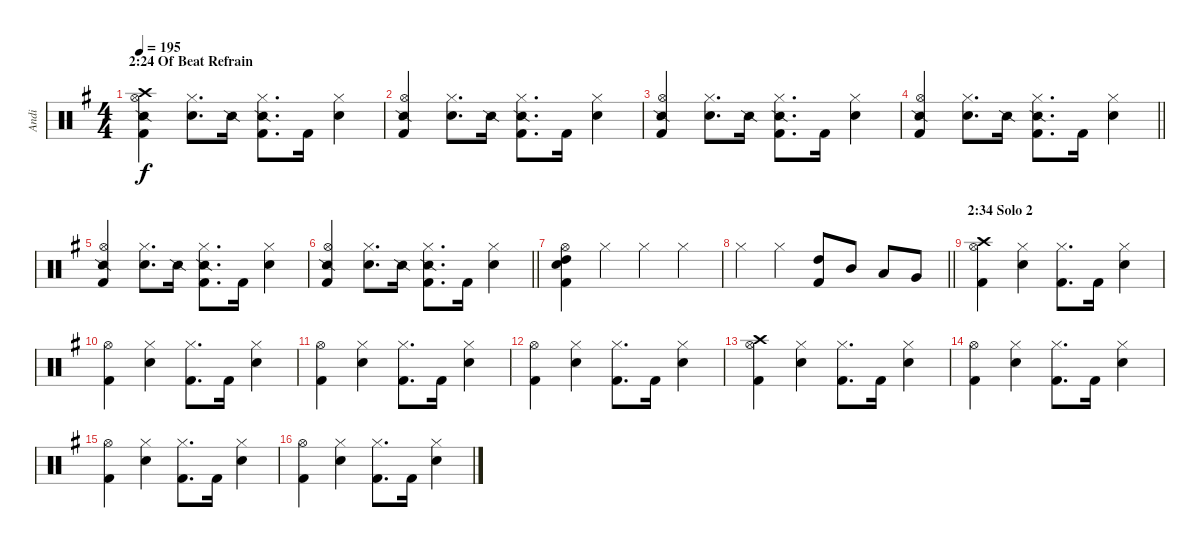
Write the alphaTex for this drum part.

\track ("Andi" "Andi") {instrument percussion}
\staff {score}
\articulation defaults
\ts (4 4)
\section ("" "2:24 Of Beat Refrain")
\tempo 195
\clef neutral
\ks g
("Crash high (hit)" "Snare (side stick) 2" "Hi-Hat (open)" "Kick (hit) 2").4{dy f} ("Hi-Hat (closed)" "Snare (hit) 2").8{d} "Snare (side stick) 2".16 ("Snare (side stick) 2" "Hi-Hat (closed)" "Kick (hit) 2").8{d} "Kick (hit) 2".16 ("Hi-Hat (closed)" "Snare (hit) 2").4 |
("Snare (side stick) 2" "Hi-Hat (open)" "Kick (hit) 2").4 ("Hi-Hat (closed)" "Snare (hit) 2").8{d} "Snare (side stick) 2".16 ("Snare (side stick) 2" "Hi-Hat (closed)" "Kick (hit) 2").8{d} "Kick (hit) 2".16 ("Hi-Hat (closed)" "Snare (hit) 2").4 |
("Snare (side stick) 2" "Hi-Hat (open)" "Kick (hit) 2").4 ("Hi-Hat (closed)" "Snare (hit) 2").8{d} "Snare (side stick) 2".16 ("Snare (side stick) 2" "Hi-Hat (closed)" "Kick (hit) 2").8{d} "Kick (hit) 2".16 ("Hi-Hat (closed)" "Snare (hit) 2").4 |
\barLineRight lightlight
("Snare (side stick) 2" "Hi-Hat (open)" "Kick (hit) 2").4 ("Hi-Hat (closed)" "Snare (hit) 2").8{d} "Snare (side stick) 2".16 ("Snare (side stick) 2" "Hi-Hat (closed)" "Kick (hit) 2").8{d} "Kick (hit) 2".16 ("Hi-Hat (closed)" "Snare (hit) 2").4 |
("Snare (side stick) 2" "Hi-Hat (open)" "Kick (hit) 2").4 ("Hi-Hat (closed)" "Snare (hit) 2").8{d} "Snare (side stick) 2".16 ("Snare (side stick) 2" "Hi-Hat (closed)" "Kick (hit) 2").8{d} "Kick (hit) 2".16 ("Hi-Hat (closed)" "Snare (hit) 2").4 |
\barLineRight lightlight
("Snare (side stick) 2" "Hi-Hat (open)" "Kick (hit) 2").4 ("Hi-Hat (closed)" "Snare (hit) 2").8{d} "Snare (side stick) 2".16 ("Snare (side stick) 2" "Hi-Hat (closed)" "Kick (hit) 2").8{d} "Kick (hit) 2".16 ("Hi-Hat (closed)" "Snare (hit) 2").4 |
("Hi-Hat (open)" "High Tom (hit)" "Snare (hit)" "Kick (hit) 2").4 "Hi-Hat (closed)".4 "Hi-Hat (closed)".4 "Hi-Hat (closed)".4 |
\barLineRight lightlight "Hi-Hat (closed)".4 "Hi-Hat (closed)".4
("High Tom (hit)" "Kick (hit) 2").8 "Mid Tom (hit)".8 "Low Tom (hit)".8 "Very Low Tom (hit)".8 |
\section ("" "2:34 Solo 2")
("Crash high (hit)" "Hi-Hat (open)" "Kick (hit) 2").4 ("Hi-Hat (closed)" "Snare (hit) 2").4 ("Hi-Hat (closed)" "Kick (hit) 2").8{d} "Kick (hit) 2".16 ("Hi-Hat (closed)" "Snare (hit) 2").4 |
("Hi-Hat (open)" "Kick (hit) 2").4 ("Hi-Hat (closed)" "Snare (hit) 2").4 ("Hi-Hat (closed)" "Kick (hit) 2").8{d} "Kick (hit) 2".16 ("Hi-Hat (closed)" "Snare (hit) 2").4 |
("Hi-Hat (open)" "Kick (hit) 2").4 ("Hi-Hat (closed)" "Snare (hit) 2").4 ("Hi-Hat (closed)" "Kick (hit) 2").8{d} "Kick (hit) 2".16 ("Hi-Hat (closed)" "Snare (hit) 2").4 |
("Hi-Hat (open)" "Kick (hit) 2").4 ("Hi-Hat (closed)" "Snare (hit) 2").4 ("Hi-Hat (closed)" "Kick (hit) 2").8{d} "Kick (hit) 2".16 ("Hi-Hat (closed)" "Snare (hit) 2").4 |
("Crash high (hit)" "Hi-Hat (open)" "Kick (hit) 2").4 ("Hi-Hat (closed)" "Snare (hit) 2").4 ("Hi-Hat (closed)" "Kick (hit) 2").8{d} "Kick (hit) 2".16 ("Hi-Hat (closed)" "Snare (hit) 2").4 |
("Hi-Hat (open)" "Kick (hit) 2").4 ("Hi-Hat (closed)" "Snare (hit) 2").4 ("Hi-Hat (closed)" "Kick (hit) 2").8{d} "Kick (hit) 2".16 ("Hi-Hat (closed)" "Snare (hit) 2").4 |
("Hi-Hat (open)" "Kick (hit) 2").4 ("Hi-Hat (closed)" "Snare (hit) 2").4 ("Hi-Hat (closed)" "Kick (hit) 2").8{d} "Kick (hit) 2".16 ("Hi-Hat (closed)" "Snare (hit) 2").4 |
("Hi-Hat (open)" "Kick (hit) 2").4 ("Hi-Hat (closed)" "Snare (hit) 2").4 ("Hi-Hat (closed)" "Kick (hit) 2").8{d} "Kick (hit) 2".16 ("Hi-Hat (closed)" "Snare (hit) 2").4
